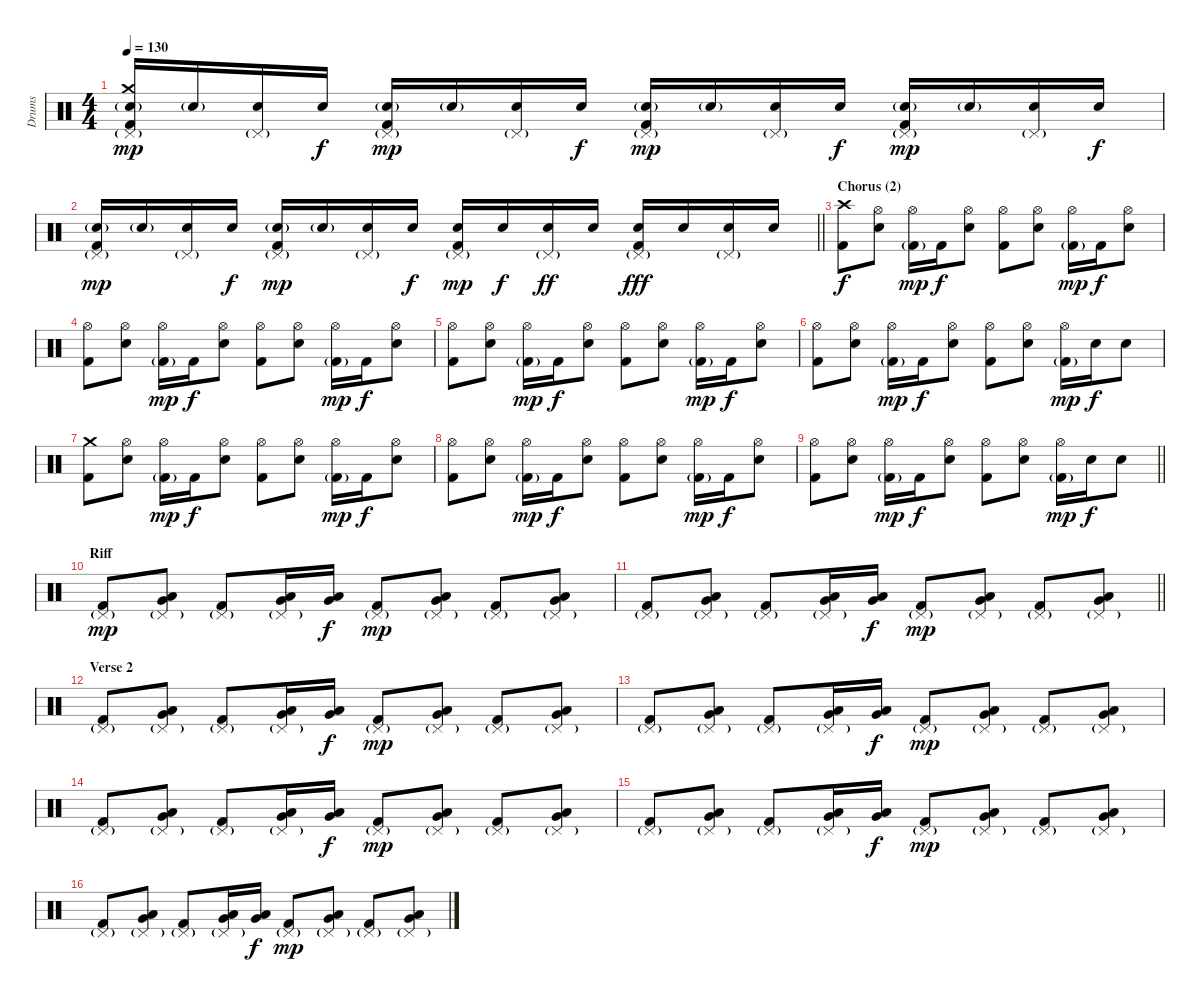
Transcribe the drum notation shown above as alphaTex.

\track ("Drums" "Drums") {instrument percussion}
\staff {score}
\articulation defaults
\ts (4 4)
\tempo 130
\clef neutral
\ks c
("Pedal Hi-Hat (hit)"{g} "Crash medium (hit)" "Electric Snare (hit)"{g} "Kick (hit) 2").16{dy mp} "Electric Snare (hit)"{g}.16 ("Pedal Hi-Hat (hit)"{g} "Electric Snare (hit)").16 "Electric Snare (hit)".16{dy f} ("Pedal Hi-Hat (hit)"{g} "Electric Snare (hit)"{g} "Kick (hit) 2").16{dy mp} "Electric Snare (hit)"{g}.16 ("Pedal Hi-Hat (hit)"{g} "Electric Snare (hit)").16 "Electric Snare (hit)".16{dy f} ("Pedal Hi-Hat (hit)"{g} "Electric Snare (hit)"{g} "Kick (hit) 2").16{dy mp} "Electric Snare (hit)"{g}.16 ("Pedal Hi-Hat (hit)"{g} "Electric Snare (hit)").16 "Electric Snare (hit)".16{dy f} ("Pedal Hi-Hat (hit)"{g} "Electric Snare (hit)"{g} "Kick (hit) 2").16{dy mp} "Electric Snare (hit)"{g}.16 ("Pedal Hi-Hat (hit)"{g} "Electric Snare (hit)").16 "Electric Snare (hit)".16{dy f} |
\barLineRight lightlight
("Pedal Hi-Hat (hit)"{g} "Electric Snare (hit)"{g} "Kick (hit) 2").16{dy mp} "Electric Snare (hit)"{g}.16 ("Pedal Hi-Hat (hit)"{g} "Electric Snare (hit)").16 "Electric Snare (hit)".16{dy f} ("Pedal Hi-Hat (hit)"{g} "Electric Snare (hit)"{g} "Kick (hit) 2").16{dy mp} "Electric Snare (hit)"{g}.16 ("Pedal Hi-Hat (hit)"{g} "Electric Snare (hit)").16 "Electric Snare (hit)".16{dy f} ("Pedal Hi-Hat (hit)"{g} "Electric Snare (hit)" "Kick (hit) 2").16{dy mp} "Electric Snare (hit)".16{dy f} ("Pedal Hi-Hat (hit)"{g} "Electric Snare (hit)").16{dy ff} "Electric Snare (hit)".16 ("Pedal Hi-Hat (hit)"{g} "Electric Snare (hit)" "Kick (hit) 2").16{dy fff} "Electric Snare (hit)".16 ("Pedal Hi-Hat (hit)"{g} "Electric Snare (hit)").16 "Electric Snare (hit)".16 |
\section ("" "Chorus (2)")
("Crash high (hit)" "Kick (hit) 2").8{dy f} ("Hi-Hat (open)" "Electric Snare (hit)").8 ("Hi-Hat (open)" "Kick (hit) 2"{g}).16{dy mp} "Kick (hit) 2".16{dy f} ("Hi-Hat (open)" "Electric Snare (hit)").8 ("Hi-Hat (open)" "Kick (hit) 2").8 ("Hi-Hat (open)" "Electric Snare (hit)").8 ("Hi-Hat (open)" "Kick (hit) 2"{g}).16{dy mp} "Kick (hit) 2".16{dy f} ("Hi-Hat (open)" "Electric Snare (hit)").8 |
("Hi-Hat (open)" "Kick (hit) 2").8 ("Hi-Hat (open)" "Electric Snare (hit)").8 ("Hi-Hat (open)" "Kick (hit) 2"{g}).16{dy mp} "Kick (hit) 2".16{dy f} ("Hi-Hat (open)" "Electric Snare (hit)").8 ("Hi-Hat (open)" "Kick (hit) 2").8 ("Hi-Hat (open)" "Electric Snare (hit)").8 ("Hi-Hat (open)" "Kick (hit) 2"{g}).16{dy mp} "Kick (hit) 2".16{dy f} ("Hi-Hat (open)" "Electric Snare (hit)").8 |
("Hi-Hat (open)" "Kick (hit) 2").8 ("Hi-Hat (open)" "Electric Snare (hit)").8 ("Hi-Hat (open)" "Kick (hit) 2"{g}).16{dy mp} "Kick (hit) 2".16{dy f} ("Hi-Hat (open)" "Electric Snare (hit)").8 ("Hi-Hat (open)" "Kick (hit) 2").8 ("Hi-Hat (open)" "Electric Snare (hit)").8 ("Hi-Hat (open)" "Kick (hit) 2"{g}).16{dy mp} "Kick (hit) 2".16{dy f} ("Hi-Hat (open)" "Electric Snare (hit)").8 |
("Hi-Hat (open)" "Kick (hit) 2").8 ("Hi-Hat (open)" "Electric Snare (hit)").8 ("Hi-Hat (open)" "Kick (hit) 2"{g}).16{dy mp} "Kick (hit) 2".16{dy f} ("Hi-Hat (open)" "Electric Snare (hit)").8 ("Hi-Hat (open)" "Kick (hit) 2").8 ("Hi-Hat (open)" "Electric Snare (hit)").8 ("Hi-Hat (open)" "Kick (hit) 2"{g}).16{dy mp} "Electric Snare (hit)".16{dy f} "Electric Snare (hit)".8 |
("Crash medium (hit)" "Kick (hit) 2").8 ("Hi-Hat (open)" "Electric Snare (hit)").8 ("Hi-Hat (open)" "Kick (hit) 2"{g}).16{dy mp} "Kick (hit) 2".16{dy f} ("Hi-Hat (open)" "Electric Snare (hit)").8 ("Hi-Hat (open)" "Kick (hit) 2").8 ("Hi-Hat (open)" "Electric Snare (hit)").8 ("Hi-Hat (open)" "Kick (hit) 2"{g}).16{dy mp} "Kick (hit) 2".16{dy f} ("Hi-Hat (open)" "Electric Snare (hit)").8 |
("Hi-Hat (open)" "Kick (hit) 2").8 ("Hi-Hat (open)" "Electric Snare (hit)").8 ("Hi-Hat (open)" "Kick (hit) 2"{g}).16{dy mp} "Kick (hit) 2".16{dy f} ("Hi-Hat (open)" "Electric Snare (hit)").8 ("Hi-Hat (open)" "Kick (hit) 2").8 ("Hi-Hat (open)" "Electric Snare (hit)").8 ("Hi-Hat (open)" "Kick (hit) 2"{g}).16{dy mp} "Kick (hit) 2".16{dy f} ("Hi-Hat (open)" "Electric Snare (hit)").8 |
\barLineRight lightlight
("Hi-Hat (open)" "Kick (hit) 2").8 ("Hi-Hat (open)" "Electric Snare (hit)").8 ("Hi-Hat (open)" "Kick (hit) 2"{g}).16{dy mp} "Kick (hit) 2".16{dy f} ("Hi-Hat (open)" "Electric Snare (hit)").8 ("Hi-Hat (open)" "Kick (hit) 2").8 ("Hi-Hat (open)" "Electric Snare (hit)").8 ("Hi-Hat (open)" "Kick (hit) 2"{g}).16{dy mp} "Electric Snare (hit)".16{dy f} "Electric Snare (hit)".8 |
\section ("" "Riff")
("Pedal Hi-Hat (hit)"{g} "Kick (hit) 2").8{dy mp} ("Pedal Hi-Hat (hit)"{g} "Low Tom (hit)" "Very Low Tom (hit)").8 ("Pedal Hi-Hat (hit)"{g} "Kick (hit) 2").8 ("Pedal Hi-Hat (hit)"{g} "Very Low Tom (hit)" "Low Floor Tom (hit)").16 ("Very Low Tom (hit)" "Low Floor Tom (hit)").16{dy f} ("Pedal Hi-Hat (hit)"{g} "Kick (hit) 2").8{dy mp} ("Pedal Hi-Hat (hit)"{g} "Very Low Tom (hit)" "Low Floor Tom (hit)").8 ("Pedal Hi-Hat (hit)"{g} "Kick (hit) 2").8 ("Pedal Hi-Hat (hit)"{g} "Very Low Tom (hit)" "Low Floor Tom (hit)").8 |
\barLineRight lightlight
("Pedal Hi-Hat (hit)"{g} "Kick (hit) 2").8 ("Pedal Hi-Hat (hit)"{g} "Low Tom (hit)" "Very Low Tom (hit)").8 ("Pedal Hi-Hat (hit)"{g} "Kick (hit) 2").8 ("Pedal Hi-Hat (hit)"{g} "Very Low Tom (hit)" "Low Floor Tom (hit)").16 ("Very Low Tom (hit)" "Low Floor Tom (hit)").16{dy f} ("Pedal Hi-Hat (hit)"{g} "Kick (hit) 2").8{dy mp} ("Pedal Hi-Hat (hit)"{g} "Very Low Tom (hit)" "Low Floor Tom (hit)").8 ("Pedal Hi-Hat (hit)"{g} "Kick (hit) 2").8 ("Pedal Hi-Hat (hit)"{g} "Very Low Tom (hit)" "Low Floor Tom (hit)").8 |
\section ("" "Verse 2")
("Pedal Hi-Hat (hit)"{g} "Kick (hit) 2").8 ("Pedal Hi-Hat (hit)"{g} "Low Tom (hit)" "Very Low Tom (hit)").8 ("Pedal Hi-Hat (hit)"{g} "Kick (hit) 2").8 ("Pedal Hi-Hat (hit)"{g} "Very Low Tom (hit)" "Low Floor Tom (hit)").16 ("Very Low Tom (hit)" "Low Floor Tom (hit)").16{dy f} ("Pedal Hi-Hat (hit)"{g} "Kick (hit) 2").8{dy mp} ("Pedal Hi-Hat (hit)"{g} "Very Low Tom (hit)" "Low Floor Tom (hit)").8 ("Pedal Hi-Hat (hit)"{g} "Kick (hit) 2").8 ("Pedal Hi-Hat (hit)"{g} "Very Low Tom (hit)" "Low Floor Tom (hit)").8 |
("Pedal Hi-Hat (hit)"{g} "Kick (hit) 2").8 ("Pedal Hi-Hat (hit)"{g} "Low Tom (hit)" "Very Low Tom (hit)").8 ("Pedal Hi-Hat (hit)"{g} "Kick (hit) 2").8 ("Pedal Hi-Hat (hit)"{g} "Very Low Tom (hit)" "Low Floor Tom (hit)").16 ("Very Low Tom (hit)" "Low Floor Tom (hit)").16{dy f} ("Pedal Hi-Hat (hit)"{g} "Kick (hit) 2").8{dy mp} ("Pedal Hi-Hat (hit)"{g} "Very Low Tom (hit)" "Low Floor Tom (hit)").8 ("Pedal Hi-Hat (hit)"{g} "Kick (hit) 2").8 ("Pedal Hi-Hat (hit)"{g} "Very Low Tom (hit)" "Low Floor Tom (hit)").8 |
("Pedal Hi-Hat (hit)"{g} "Kick (hit) 2").8 ("Pedal Hi-Hat (hit)"{g} "Low Tom (hit)" "Very Low Tom (hit)").8 ("Pedal Hi-Hat (hit)"{g} "Kick (hit) 2").8 ("Pedal Hi-Hat (hit)"{g} "Very Low Tom (hit)" "Low Floor Tom (hit)").16 ("Very Low Tom (hit)" "Low Floor Tom (hit)").16{dy f} ("Pedal Hi-Hat (hit)"{g} "Kick (hit) 2").8{dy mp} ("Pedal Hi-Hat (hit)"{g} "Very Low Tom (hit)" "Low Floor Tom (hit)").8 ("Pedal Hi-Hat (hit)"{g} "Kick (hit) 2").8 ("Pedal Hi-Hat (hit)"{g} "Very Low Tom (hit)" "Low Floor Tom (hit)").8 |
("Pedal Hi-Hat (hit)"{g} "Kick (hit) 2").8 ("Pedal Hi-Hat (hit)"{g} "Low Tom (hit)" "Very Low Tom (hit)").8 ("Pedal Hi-Hat (hit)"{g} "Kick (hit) 2").8 ("Pedal Hi-Hat (hit)"{g} "Very Low Tom (hit)" "Low Floor Tom (hit)").16 ("Very Low Tom (hit)" "Low Floor Tom (hit)").16{dy f} ("Pedal Hi-Hat (hit)"{g} "Kick (hit) 2").8{dy mp} ("Pedal Hi-Hat (hit)"{g} "Very Low Tom (hit)" "Low Floor Tom (hit)").8 ("Pedal Hi-Hat (hit)"{g} "Kick (hit) 2").8 ("Pedal Hi-Hat (hit)"{g} "Very Low Tom (hit)" "Low Floor Tom (hit)").8 |
("Pedal Hi-Hat (hit)"{g} "Kick (hit) 2").8 ("Pedal Hi-Hat (hit)"{g} "Low Tom (hit)" "Very Low Tom (hit)").8 ("Pedal Hi-Hat (hit)"{g} "Kick (hit) 2").8 ("Pedal Hi-Hat (hit)"{g} "Very Low Tom (hit)" "Low Floor Tom (hit)").16 ("Very Low Tom (hit)" "Low Floor Tom (hit)").16{dy f} ("Pedal Hi-Hat (hit)"{g} "Kick (hit) 2").8{dy mp} ("Pedal Hi-Hat (hit)"{g} "Very Low Tom (hit)" "Low Floor Tom (hit)").8 ("Pedal Hi-Hat (hit)"{g} "Kick (hit) 2").8 ("Pedal Hi-Hat (hit)"{g} "Very Low Tom (hit)" "Low Floor Tom (hit)").8
